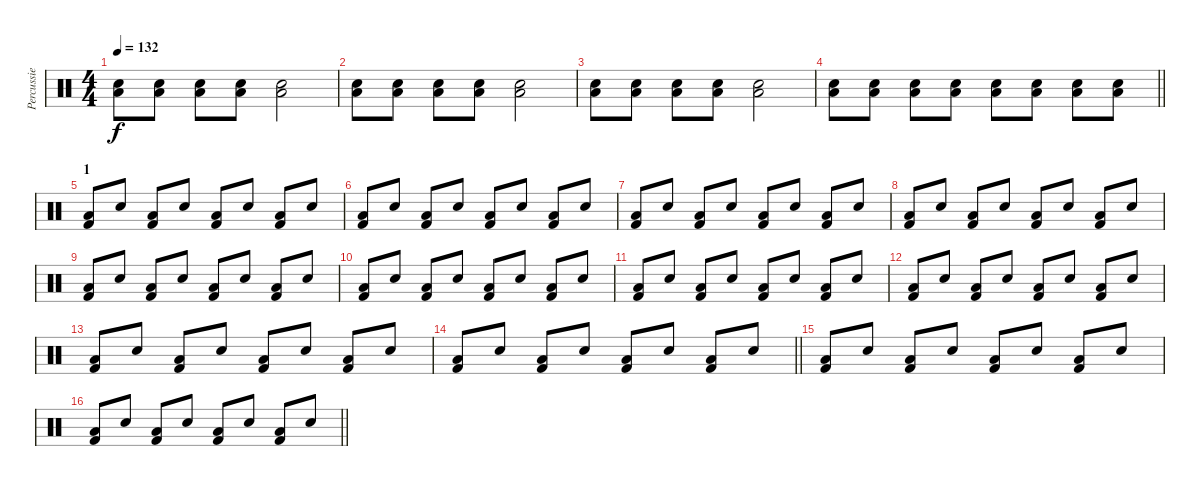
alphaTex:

\track ("Percussie" "Percussie") {instrument percussion}
\staff {score}
\articulation defaults
\ts (4 4)
\tempo 132
\clef neutral
\ks c
("Low Floor Tom (hit)" "Snare (hit) 2").8{dy f} ("Low Floor Tom (hit)" "Snare (hit) 2").8 ("Low Floor Tom (hit)" "Snare (hit) 2").8 ("Low Floor Tom (hit)" "Snare (hit) 2").8 ("Low Floor Tom (hit)" "Snare (hit) 2").2 |
("Low Floor Tom (hit)" "Snare (hit) 2").8 ("Low Floor Tom (hit)" "Snare (hit) 2").8 ("Low Floor Tom (hit)" "Snare (hit) 2").8 ("Low Floor Tom (hit)" "Snare (hit) 2").8 ("Low Floor Tom (hit)" "Snare (hit) 2").2 |
("Low Floor Tom (hit)" "Snare (hit) 2").8 ("Low Floor Tom (hit)" "Snare (hit) 2").8 ("Low Floor Tom (hit)" "Snare (hit) 2").8 ("Low Floor Tom (hit)" "Snare (hit) 2").8 ("Low Floor Tom (hit)" "Snare (hit) 2").2 |
\barLineRight lightlight
("Low Floor Tom (hit)" "Snare (hit) 2").8 ("Low Floor Tom (hit)" "Snare (hit) 2").8 ("Low Floor Tom (hit)" "Snare (hit) 2").8 ("Low Floor Tom (hit)" "Snare (hit) 2").8 ("Low Floor Tom (hit)" "Snare (hit) 2").8 ("Low Floor Tom (hit)" "Snare (hit) 2").8 ("Low Floor Tom (hit)" "Snare (hit) 2").8 ("Low Floor Tom (hit)" "Snare (hit) 2").8 |
\section ("" "1")
("Low Floor Tom (hit)" "Kick (hit) 2").8 "Snare (hit) 2".8 ("Low Floor Tom (hit)" "Kick (hit) 2").8 "Snare (hit) 2".8 ("Low Floor Tom (hit)" "Kick (hit) 2").8 "Snare (hit) 2".8 ("Low Floor Tom (hit)" "Kick (hit) 2").8 "Snare (hit) 2".8 |
("Low Floor Tom (hit)" "Kick (hit) 2").8 "Snare (hit) 2".8 ("Low Floor Tom (hit)" "Kick (hit) 2").8 "Snare (hit) 2".8 ("Low Floor Tom (hit)" "Kick (hit) 2").8 "Snare (hit) 2".8 ("Low Floor Tom (hit)" "Kick (hit) 2").8 "Snare (hit) 2".8 |
("Low Floor Tom (hit)" "Kick (hit) 2").8 "Snare (hit) 2".8 ("Low Floor Tom (hit)" "Kick (hit) 2").8 "Snare (hit) 2".8 ("Low Floor Tom (hit)" "Kick (hit) 2").8 "Snare (hit) 2".8 ("Low Floor Tom (hit)" "Kick (hit) 2").8 "Snare (hit) 2".8 |
("Low Floor Tom (hit)" "Kick (hit) 2").8 "Snare (hit) 2".8 ("Low Floor Tom (hit)" "Kick (hit) 2").8 "Snare (hit) 2".8 ("Low Floor Tom (hit)" "Kick (hit) 2").8 "Snare (hit) 2".8 ("Low Floor Tom (hit)" "Kick (hit) 2").8 "Snare (hit) 2".8 |
("Low Floor Tom (hit)" "Kick (hit) 2").8 "Snare (hit) 2".8 ("Low Floor Tom (hit)" "Kick (hit) 2").8 "Snare (hit) 2".8 ("Low Floor Tom (hit)" "Kick (hit) 2").8 "Snare (hit) 2".8 ("Low Floor Tom (hit)" "Kick (hit) 2").8 "Snare (hit) 2".8 |
("Low Floor Tom (hit)" "Kick (hit) 2").8 "Snare (hit) 2".8 ("Low Floor Tom (hit)" "Kick (hit) 2").8 "Snare (hit) 2".8 ("Low Floor Tom (hit)" "Kick (hit) 2").8 "Snare (hit) 2".8 ("Low Floor Tom (hit)" "Kick (hit) 2").8 "Snare (hit) 2".8 |
("Low Floor Tom (hit)" "Kick (hit) 2").8 "Snare (hit) 2".8 ("Low Floor Tom (hit)" "Kick (hit) 2").8 "Snare (hit) 2".8 ("Low Floor Tom (hit)" "Kick (hit) 2").8 "Snare (hit) 2".8 ("Low Floor Tom (hit)" "Kick (hit) 2").8 "Snare (hit) 2".8 |
("Low Floor Tom (hit)" "Kick (hit) 2").8 "Snare (hit) 2".8 ("Low Floor Tom (hit)" "Kick (hit) 2").8 "Snare (hit) 2".8 ("Low Floor Tom (hit)" "Kick (hit) 2").8 "Snare (hit) 2".8 ("Low Floor Tom (hit)" "Kick (hit) 2").8 "Snare (hit) 2".8 |
("Low Floor Tom (hit)" "Kick (hit) 2").8 "Snare (hit) 2".8 ("Low Floor Tom (hit)" "Kick (hit) 2").8 "Snare (hit) 2".8 ("Low Floor Tom (hit)" "Kick (hit) 2").8 "Snare (hit) 2".8 ("Low Floor Tom (hit)" "Kick (hit) 2").8 "Snare (hit) 2".8 |
\barLineRight lightlight
("Low Floor Tom (hit)" "Kick (hit) 2").8 "Snare (hit) 2".8 ("Low Floor Tom (hit)" "Kick (hit) 2").8 "Snare (hit) 2".8 ("Low Floor Tom (hit)" "Kick (hit) 2").8 "Snare (hit) 2".8 ("Low Floor Tom (hit)" "Kick (hit) 2").8 "Snare (hit) 2".8 |
("Low Floor Tom (hit)" "Kick (hit) 2").8 "Snare (hit) 2".8 ("Low Floor Tom (hit)" "Kick (hit) 2").8 "Snare (hit) 2".8 ("Low Floor Tom (hit)" "Kick (hit) 2").8 "Snare (hit) 2".8 ("Low Floor Tom (hit)" "Kick (hit) 2").8 "Snare (hit) 2".8 |
\barLineRight lightlight
("Low Floor Tom (hit)" "Kick (hit) 2").8 "Snare (hit) 2".8 ("Low Floor Tom (hit)" "Kick (hit) 2").8 "Snare (hit) 2".8 ("Low Floor Tom (hit)" "Kick (hit) 2").8 "Snare (hit) 2".8 ("Low Floor Tom (hit)" "Kick (hit) 2").8 "Snare (hit) 2".8
